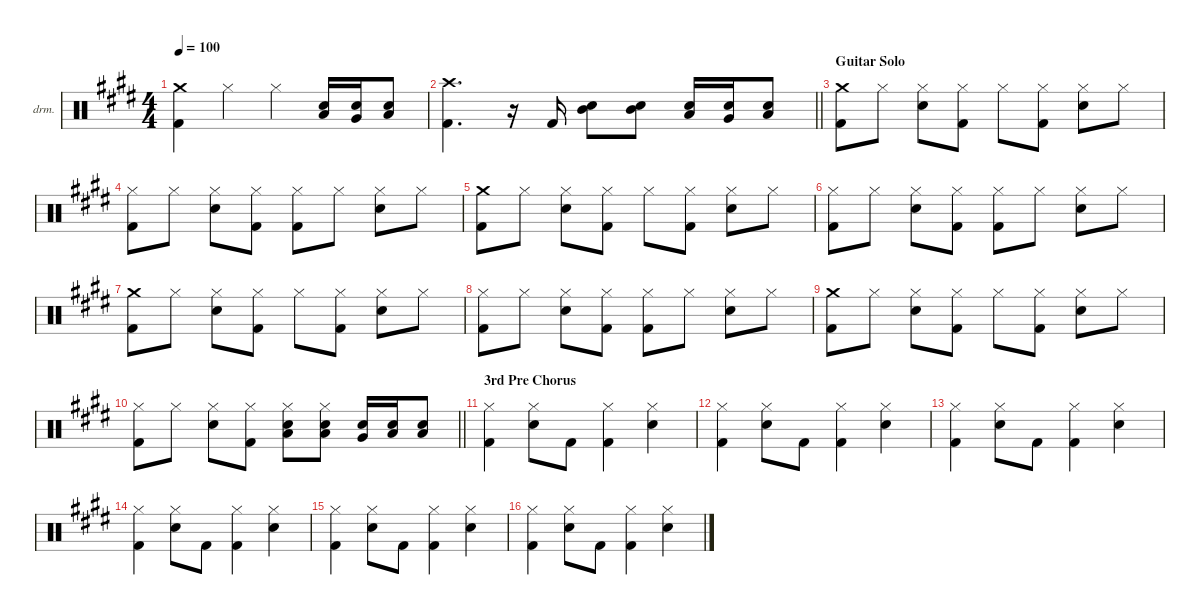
\defaultSystemsLayout 4
\hideDynamics
\bracketExtendMode nobrackets
\firstSystemTrackNameOrientation horizontal
\otherSystemsTrackNameOrientation horizontal
\track ("Percussion" "drm.") {instrument percussion}
\staff {score}
\articulation defaults
\ts (4 4)
\tempo 100
\clef neutral
\ks c#minor
("Crash medium (hit)"{acc forcenatural} "Kick (hit) 2"{acc forcenatural}).4{dy f} "Hi-Hat (closed)"{acc forcenatural}.4 "Hi-Hat (closed)"{acc forcenatural}.4 ("Snare (hit) 2"{acc forcenatural} "Low Tom (hit)"{acc forcenatural}).16 ("Snare (hit) 2"{acc forcenatural} "Very Low Tom (hit)"{acc forcenatural}).16 ("Snare (hit) 2"{acc forcenatural} "Low Floor Tom (hit)"{acc forcenatural}).8 |
\barLineRight lightlight
("Crash high (hit)"{acc forcenatural} "Kick (hit) 2"{acc forcenatural}).4{d} r.16 "Kick (hit) 2"{acc forcenatural}.16 ("Snare (hit) 2"{acc forcenatural} "Mid Tom (hit)"{acc forcenatural}).8 ("Snare (hit) 2"{acc forcenatural} "Mid Tom (hit)"{acc forcenatural}).8 ("Snare (hit) 2"{acc forcenatural} "Low Tom (hit)"{acc forcenatural}).16 ("Snare (hit) 2"{acc forcenatural} "Very Low Tom (hit)"{acc forcenatural}).16 ("Snare (hit) 2"{acc forcenatural} "Low Floor Tom (hit)"{acc forcenatural}).8 |
\section ("" "Guitar Solo")
("Crash medium (hit)"{acc forcenatural} "Kick (hit) 2"{acc forcenatural}).8 "Hi-Hat (closed)"{acc forcenatural}.8 ("Hi-Hat (closed)"{acc forcenatural} "Snare (hit) 2"{acc forcenatural}).8 ("Hi-Hat (closed)"{acc forcenatural} "Kick (hit) 2"{acc forcenatural}).8 "Hi-Hat (closed)"{acc forcenatural}.8 ("Hi-Hat (closed)"{acc forcenatural} "Kick (hit) 2"{acc forcenatural}).8 ("Hi-Hat (closed)"{acc forcenatural} "Snare (hit) 2"{acc forcenatural}).8 "Hi-Hat (closed)"{acc forcenatural}.8 |
("Hi-Hat (closed)"{acc forcenatural} "Kick (hit) 2"{acc forcenatural}).8 "Hi-Hat (closed)"{acc forcenatural}.8 ("Hi-Hat (closed)"{acc forcenatural} "Snare (hit) 2"{acc forcenatural}).8 ("Hi-Hat (closed)"{acc forcenatural} "Kick (hit) 2"{acc forcenatural}).8 ("Hi-Hat (closed)"{acc forcenatural} "Kick (hit) 2"{acc forcenatural}).8 "Hi-Hat (closed)"{acc forcenatural}.8 ("Hi-Hat (closed)"{acc forcenatural} "Snare (hit) 2"{acc forcenatural}).8 "Hi-Hat (closed)"{acc forcenatural}.8 |
("Crash medium (hit)"{acc forcenatural} "Kick (hit) 2"{acc forcenatural}).8 "Hi-Hat (closed)"{acc forcenatural}.8 ("Hi-Hat (closed)"{acc forcenatural} "Snare (hit) 2"{acc forcenatural}).8 ("Hi-Hat (closed)"{acc forcenatural} "Kick (hit) 2"{acc forcenatural}).8 "Hi-Hat (closed)"{acc forcenatural}.8 ("Hi-Hat (closed)"{acc forcenatural} "Kick (hit) 2"{acc forcenatural}).8 ("Hi-Hat (closed)"{acc forcenatural} "Snare (hit) 2"{acc forcenatural}).8 "Hi-Hat (closed)"{acc forcenatural}.8 |
("Hi-Hat (closed)"{acc forcenatural} "Kick (hit) 2"{acc forcenatural}).8 "Hi-Hat (closed)"{acc forcenatural}.8 ("Hi-Hat (closed)"{acc forcenatural} "Snare (hit) 2"{acc forcenatural}).8 ("Hi-Hat (closed)"{acc forcenatural} "Kick (hit) 2"{acc forcenatural}).8 ("Hi-Hat (closed)"{acc forcenatural} "Kick (hit) 2"{acc forcenatural}).8 "Hi-Hat (closed)"{acc forcenatural}.8 ("Hi-Hat (closed)"{acc forcenatural} "Snare (hit) 2"{acc forcenatural}).8 "Hi-Hat (closed)"{acc forcenatural}.8 |
("Crash medium (hit)"{acc forcenatural} "Kick (hit) 2"{acc forcenatural}).8 "Hi-Hat (closed)"{acc forcenatural}.8 ("Hi-Hat (closed)"{acc forcenatural} "Snare (hit) 2"{acc forcenatural}).8 ("Hi-Hat (closed)"{acc forcenatural} "Kick (hit) 2"{acc forcenatural}).8 "Hi-Hat (closed)"{acc forcenatural}.8 ("Hi-Hat (closed)"{acc forcenatural} "Kick (hit) 2"{acc forcenatural}).8 ("Hi-Hat (closed)"{acc forcenatural} "Snare (hit) 2"{acc forcenatural}).8 "Hi-Hat (closed)"{acc forcenatural}.8 |
("Hi-Hat (closed)"{acc forcenatural} "Kick (hit) 2"{acc forcenatural}).8 "Hi-Hat (closed)"{acc forcenatural}.8 ("Hi-Hat (closed)"{acc forcenatural} "Snare (hit) 2"{acc forcenatural}).8 ("Hi-Hat (closed)"{acc forcenatural} "Kick (hit) 2"{acc forcenatural}).8 ("Hi-Hat (closed)"{acc forcenatural} "Kick (hit) 2"{acc forcenatural}).8 "Hi-Hat (closed)"{acc forcenatural}.8 ("Hi-Hat (closed)"{acc forcenatural} "Snare (hit) 2"{acc forcenatural}).8 "Hi-Hat (closed)"{acc forcenatural}.8 |
("Crash medium (hit)"{acc forcenatural} "Kick (hit) 2"{acc forcenatural}).8 "Hi-Hat (closed)"{acc forcenatural}.8 ("Hi-Hat (closed)"{acc forcenatural} "Snare (hit) 2"{acc forcenatural}).8 ("Hi-Hat (closed)"{acc forcenatural} "Kick (hit) 2"{acc forcenatural}).8 "Hi-Hat (closed)"{acc forcenatural}.8 ("Hi-Hat (closed)"{acc forcenatural} "Kick (hit) 2"{acc forcenatural}).8 ("Hi-Hat (closed)"{acc forcenatural} "Snare (hit) 2"{acc forcenatural}).8 "Hi-Hat (closed)"{acc forcenatural}.8 |
\barLineRight lightlight
("Hi-Hat (closed)"{acc forcenatural} "Kick (hit) 2"{acc forcenatural}).8 "Hi-Hat (closed)"{acc forcenatural}.8 ("Hi-Hat (closed)"{acc forcenatural} "Snare (hit) 2"{acc forcenatural}).8 ("Hi-Hat (closed)"{acc forcenatural} "Kick (hit) 2"{acc forcenatural}).8 ("Hi-Hat (closed)"{acc forcenatural} "Snare (hit) 2"{acc forcenatural} "Low Tom (hit)"{acc forcenatural}).8 ("Hi-Hat (closed)"{acc forcenatural} "Snare (hit) 2"{acc forcenatural} "Low Tom (hit)"{acc forcenatural}).8 ("Snare (hit) 2"{acc forcenatural} "Very Low Tom (hit)"{acc forcenatural}).16 ("Snare (hit) 2"{acc forcenatural} "Low Floor Tom (hit)"{acc forcenatural}).16 ("Snare (hit) 2"{acc forcenatural} "Low Floor Tom (hit)"{acc forcenatural}).8 |
\section ("" "3rd Pre Chorus")
("Hi-Hat (closed)"{acc forcenatural} "Kick (hit) 2"{acc forcenatural}).4 ("Hi-Hat (closed)"{acc forcenatural} "Snare (hit) 2"{acc forcenatural}).8 "Kick (hit) 2"{acc forcenatural}.8 ("Hi-Hat (closed)"{acc forcenatural} "Kick (hit) 2"{acc forcenatural}).4 ("Hi-Hat (closed)"{acc forcenatural} "Snare (hit) 2"{acc forcenatural}).4 |
("Hi-Hat (closed)"{acc forcenatural} "Kick (hit) 2"{acc forcenatural}).4 ("Hi-Hat (closed)"{acc forcenatural} "Snare (hit) 2"{acc forcenatural}).8 "Kick (hit) 2"{acc forcenatural}.8 ("Hi-Hat (closed)"{acc forcenatural} "Kick (hit) 2"{acc forcenatural}).4 ("Hi-Hat (closed)"{acc forcenatural} "Snare (hit) 2"{acc forcenatural}).4 |
("Hi-Hat (closed)"{acc forcenatural} "Kick (hit) 2"{acc forcenatural}).4 ("Hi-Hat (closed)"{acc forcenatural} "Snare (hit) 2"{acc forcenatural}).8 "Kick (hit) 2"{acc forcenatural}.8 ("Hi-Hat (closed)"{acc forcenatural} "Kick (hit) 2"{acc forcenatural}).4 ("Hi-Hat (closed)"{acc forcenatural} "Snare (hit) 2"{acc forcenatural}).4 |
("Hi-Hat (closed)"{acc forcenatural} "Kick (hit) 2"{acc forcenatural}).4 ("Hi-Hat (closed)"{acc forcenatural} "Snare (hit) 2"{acc forcenatural}).8 "Kick (hit) 2"{acc forcenatural}.8 ("Hi-Hat (closed)"{acc forcenatural} "Kick (hit) 2"{acc forcenatural}).4 ("Hi-Hat (closed)"{acc forcenatural} "Snare (hit) 2"{acc forcenatural}).4 |
("Hi-Hat (closed)"{acc forcenatural} "Kick (hit) 2"{acc forcenatural}).4 ("Hi-Hat (closed)"{acc forcenatural} "Snare (hit) 2"{acc forcenatural}).8 "Kick (hit) 2"{acc forcenatural}.8 ("Hi-Hat (closed)"{acc forcenatural} "Kick (hit) 2"{acc forcenatural}).4 ("Hi-Hat (closed)"{acc forcenatural} "Snare (hit) 2"{acc forcenatural}).4 |
("Hi-Hat (closed)"{acc forcenatural} "Kick (hit) 2"{acc forcenatural}).4 ("Hi-Hat (closed)"{acc forcenatural} "Snare (hit) 2"{acc forcenatural}).8 "Kick (hit) 2"{acc forcenatural}.8 ("Hi-Hat (closed)"{acc forcenatural} "Kick (hit) 2"{acc forcenatural}).4 ("Hi-Hat (closed)"{acc forcenatural} "Snare (hit) 2"{acc forcenatural}).4
